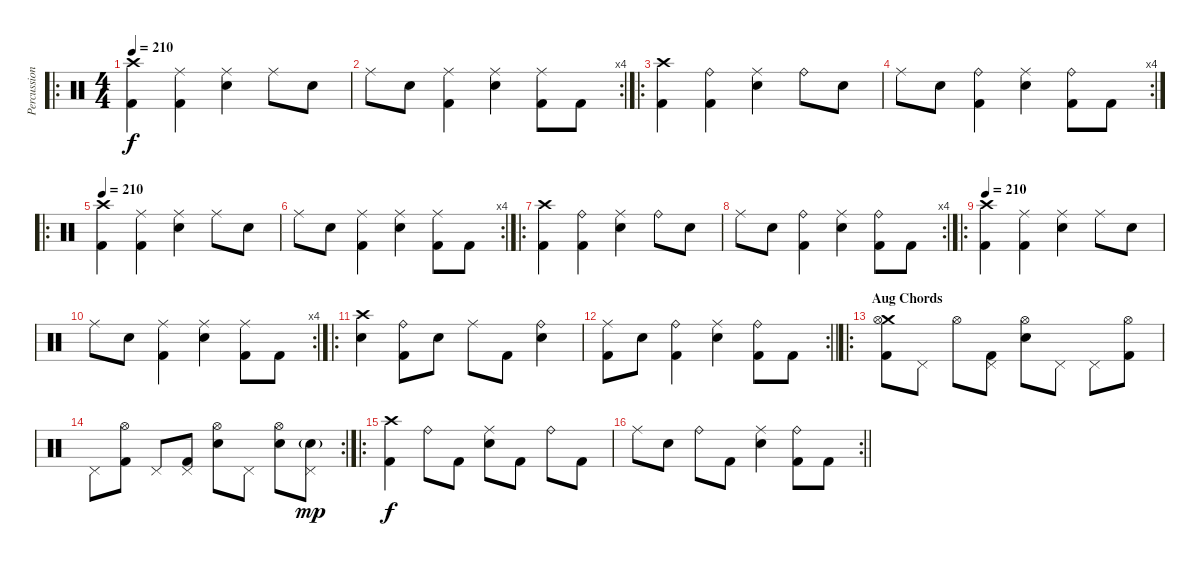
\track ("Percussion" "Percussion") {instrument percussion}
\staff {score}
\articulation defaults
\ro
\ts (4 4)
\tempo 210
\clef neutral
\ks c
("Crash high (hit)" "Kick (hit) 2").4{dy f} ("Ride (middle)" "Kick (hit) 2").4 ("Ride (middle)" "Electric Snare (hit)").4 "Ride (middle)".8 "Electric Snare (hit)".8 |
\rc 4 "Ride (middle)".8 "Electric Snare (hit)".8
("Ride (middle)" "Kick (hit) 2").4 ("Ride (middle)" "Electric Snare (hit)").4 ("Ride (middle)" "Kick (hit) 2").8 "Kick (hit) 2".8 |
\ro
("Crash high (hit)" "Kick (hit) 2").4 ("Ride (bell)" "Kick (hit) 2").4 ("Ride (middle)" "Electric Snare (hit)").4 "Ride (bell)".8 "Electric Snare (hit)".8 |
\rc 4 "Ride (middle)".8 "Electric Snare (hit)".8
("Ride (bell)" "Kick (hit) 2").4 ("Ride (middle)" "Electric Snare (hit)").4 ("Ride (bell)" "Kick (hit) 2").8 "Kick (hit) 2".8 |
\ro
\tempo 210
("Crash high (hit)" "Kick (hit) 2").4 ("Ride (middle)" "Kick (hit) 2").4 ("Ride (middle)" "Electric Snare (hit)").4 "Ride (middle)".8 "Electric Snare (hit)".8 |
\rc 4 "Ride (middle)".8 "Electric Snare (hit)".8
("Ride (middle)" "Kick (hit) 2").4 ("Ride (middle)" "Electric Snare (hit)").4 ("Ride (middle)" "Kick (hit) 2").8 "Kick (hit) 2".8 |
\ro
("Crash high (hit)" "Kick (hit) 2").4 ("Ride (bell)" "Kick (hit) 2").4 ("Ride (middle)" "Electric Snare (hit)").4 "Ride (bell)".8 "Electric Snare (hit)".8 |
\rc 4 "Ride (middle)".8 "Electric Snare (hit)".8
("Ride (bell)" "Kick (hit) 2").4 ("Ride (middle)" "Electric Snare (hit)").4 ("Ride (bell)" "Kick (hit) 2").8 "Kick (hit) 2".8 |
\ro
\tempo 210
("Crash high (hit)" "Kick (hit) 2").4 ("Ride (middle)" "Kick (hit) 2").4 ("Ride (middle)" "Electric Snare (hit)").4 "Ride (middle)".8 "Electric Snare (hit)".8 |
\rc 4 "Ride (middle)".8 "Electric Snare (hit)".8
("Ride (middle)" "Kick (hit) 2").4 ("Ride (middle)" "Electric Snare (hit)").4 ("Ride (middle)" "Kick (hit) 2").8 "Kick (hit) 2".8 |
\ro
("Crash high (hit)" "Electric Snare (hit)").4 ("Ride (bell)" "Kick (hit) 2").8 "Electric Snare (hit)".8 "Ride (middle)".8 "Kick (hit) 2".8 ("Ride (bell)" "Electric Snare (hit)").4 |
\rc 2
\barLineRight lightlight
("Ride (middle)" "Kick (hit) 2").8 "Electric Snare (hit)".8 ("Ride (bell)" "Kick (hit) 2").4 ("Ride (middle)" "Electric Snare (hit)").4 ("Ride (bell)" "Kick (hit) 2").8 "Kick (hit) 2".8 |
\ro
\section ("" "Aug Chords")
("Crash medium (hit)" "Hi-Hat (open)" "Kick (hit) 2").8 "Pedal Hi-Hat (hit)".8 "Hi-Hat (open)".8 ("Pedal Hi-Hat (hit)" "Kick (hit) 2").8 ("Hi-Hat (open)" "Electric Snare (hit)").8 "Pedal Hi-Hat (hit)".8 "Pedal Hi-Hat (hit)".8 ("Hi-Hat (open)" "Kick (hit) 2").8 |
\rc 2 "Pedal Hi-Hat (hit)".8
("Hi-Hat (open)" "Kick (hit) 2").8 "Pedal Hi-Hat (hit)".8 ("Pedal Hi-Hat (hit)" "Kick (hit) 2").8 ("Hi-Hat (open)" "Electric Snare (hit)").8 "Pedal Hi-Hat (hit)".8 ("Hi-Hat (open)" "Electric Snare (hit)").8 ("Pedal Hi-Hat (hit)" "Electric Snare (hit)"{g}).8{dy mp} |
\ro
("Crash high (hit)" "Kick (hit) 2").4{dy f} "Ride (bell)".8 "Kick (hit) 2".8 ("Ride (middle)" "Electric Snare (hit)").8 "Kick (hit) 2".8 "Ride (bell)".8 "Kick (hit) 2".8 |
\rc 2
\barLineRight lightlight "Ride (middle)".8 "Electric Snare (hit)".8 "Ride (bell)".8 "Kick (hit) 2".8
("Ride (middle)" "Electric Snare (hit)").4 ("Ride (bell)" "Kick (hit) 2").8 "Kick (hit) 2".8
